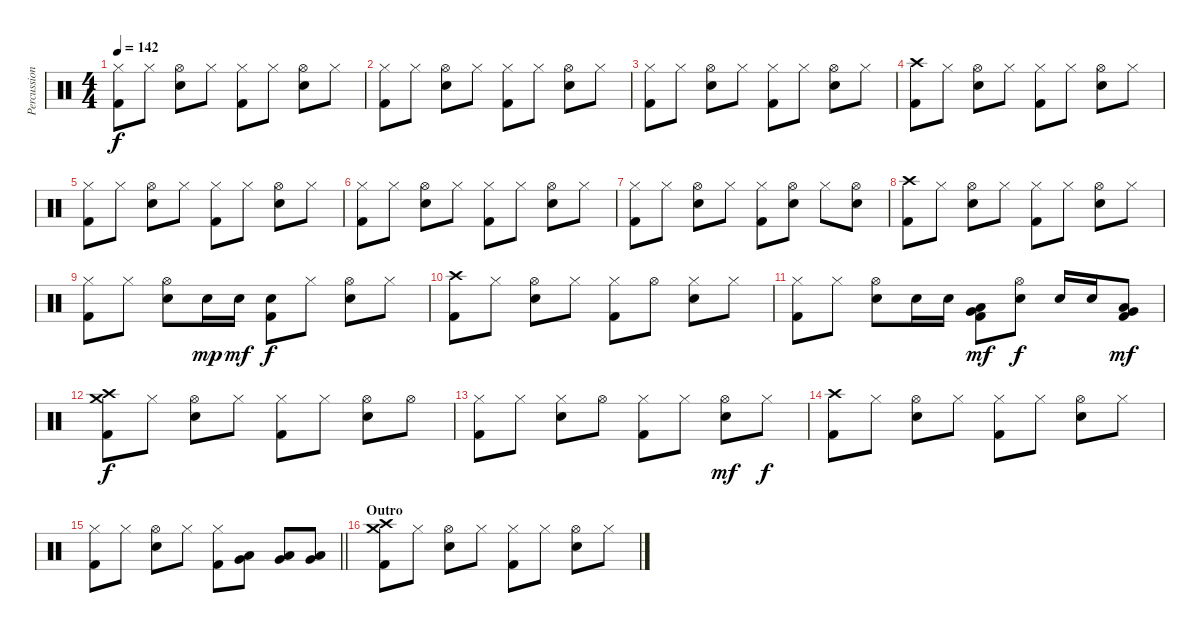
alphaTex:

\track ("Percussion" "Percussion") {instrument percussion}
\staff {score}
\articulation defaults
\ts (4 4)
\tempo 142
\clef neutral
\ks c
("Kick (hit) 2" "Hi-Hat (closed)").8{dy f} "Hi-Hat (closed)".8 ("Snare (hit) 2" "Hi-Hat (open)").8 "Hi-Hat (closed)".8 ("Kick (hit) 2" "Hi-Hat (closed)").8 "Hi-Hat (closed)".8 ("Snare (hit) 2" "Hi-Hat (open)").8 "Hi-Hat (closed)".8 |
("Kick (hit) 2" "Hi-Hat (closed)").8 "Hi-Hat (closed)".8 ("Snare (hit) 2" "Hi-Hat (open)").8 "Hi-Hat (closed)".8 ("Kick (hit) 2" "Hi-Hat (closed)").8 "Hi-Hat (closed)".8 ("Snare (hit) 2" "Hi-Hat (open)").8 "Hi-Hat (closed)".8 |
("Kick (hit) 2" "Hi-Hat (closed)").8 "Hi-Hat (closed)".8 ("Snare (hit) 2" "Hi-Hat (open)").8 "Hi-Hat (closed)".8 ("Kick (hit) 2" "Hi-Hat (closed)").8 "Hi-Hat (closed)".8 ("Snare (hit) 2" "Hi-Hat (open)").8 "Hi-Hat (closed)".8 |
("Kick (hit) 2" "Crash high (hit)").8 "Hi-Hat (closed)".8 ("Snare (hit) 2" "Hi-Hat (open)").8 "Hi-Hat (closed)".8 ("Kick (hit) 2" "Hi-Hat (closed)").8 "Hi-Hat (closed)".8 ("Snare (hit) 2" "Hi-Hat (open)").8 "Hi-Hat (closed)".8 |
("Kick (hit) 2" "Hi-Hat (closed)").8 "Hi-Hat (closed)".8 ("Snare (hit) 2" "Hi-Hat (open)").8 "Hi-Hat (closed)".8 ("Kick (hit) 2" "Hi-Hat (closed)").8 "Hi-Hat (closed)".8 ("Snare (hit) 2" "Hi-Hat (open)").8 "Hi-Hat (closed)".8 |
("Kick (hit) 2" "Hi-Hat (closed)").8 "Hi-Hat (closed)".8 ("Snare (hit) 2" "Hi-Hat (open)").8 "Hi-Hat (closed)".8 ("Kick (hit) 2" "Hi-Hat (closed)").8 "Hi-Hat (closed)".8 ("Snare (hit) 2" "Hi-Hat (open)").8 "Hi-Hat (closed)".8 |
("Kick (hit) 2" "Hi-Hat (closed)").8 "Hi-Hat (closed)".8 ("Snare (hit) 2" "Hi-Hat (open)").8 "Hi-Hat (closed)".8 ("Kick (hit) 2" "Hi-Hat (closed)").8 ("Snare (hit) 2" "Hi-Hat (open)").8 "Hi-Hat (closed)".8 ("Snare (hit) 2" "Hi-Hat (open)").8 |
("Kick (hit) 2" "Crash high (hit)").8 "Hi-Hat (closed)".8 ("Snare (hit) 2" "Hi-Hat (open)").8 "Hi-Hat (closed)".8 ("Kick (hit) 2" "Hi-Hat (closed)").8 "Hi-Hat (closed)".8 ("Snare (hit) 2" "Hi-Hat (open)").8 "Hi-Hat (closed)".8 |
("Kick (hit) 2" "Hi-Hat (closed)").8 "Hi-Hat (closed)".8 ("Snare (hit) 2" "Hi-Hat (open)").8 "Snare (hit) 2".16{dy mp} "Snare (hit) 2".16{dy mf} ("Kick (hit) 2" "Snare (hit) 2").8{dy f} "Hi-Hat (closed)".8 ("Snare (hit) 2" "Hi-Hat (open)").8 "Hi-Hat (closed)".8 |
("Kick (hit) 2" "Crash high (hit)").8 "Hi-Hat (closed)".8 ("Snare (hit) 2" "Hi-Hat (open)").8 "Hi-Hat (closed)".8 ("Kick (hit) 2" "Hi-Hat (closed)").8 "Hi-Hat (open)".8 ("Snare (hit) 2" "Hi-Hat (closed)").8 "Hi-Hat (closed)".8 |
("Kick (hit) 2" "Hi-Hat (closed)").8 "Hi-Hat (closed)".8 ("Snare (hit) 2" "Hi-Hat (open)").8 "Snare (hit) 2".16 "Snare (hit) 2".16 ("Kick (hit) 2" "Very Low Tom (hit)" "Low Floor Tom (hit)").8{dy mf} ("Snare (hit) 2" "Hi-Hat (open)").8{dy f} "Snare (hit) 2".16 "Snare (hit) 2".16 ("Kick (hit) 2" "Very Low Tom (hit)" "Low Floor Tom (hit)").8{dy mf} |
("Kick (hit) 2" "Crash high (hit)" "Crash medium (hit)").8{dy f} "Hi-Hat (closed)".8 ("Snare (hit) 2" "Hi-Hat (open)").8 "Hi-Hat (closed)".8 ("Kick (hit) 2" "Hi-Hat (closed)").8 "Hi-Hat (closed)".8 ("Snare (hit) 2" "Hi-Hat (open)").8 "Hi-Hat (open)".8 |
("Kick (hit) 2" "Hi-Hat (closed)").8 "Hi-Hat (closed)".8 ("Snare (hit) 2" "Hi-Hat (closed)").8 "Hi-Hat (open)".8 ("Kick (hit) 2" "Hi-Hat (closed)").8 "Hi-Hat (closed)".8 ("Snare (hit) 2" "Hi-Hat (open)").8{dy mf} "Hi-Hat (closed)".8{dy f} |
("Kick (hit) 2" "Crash high (hit)").8 "Hi-Hat (closed)".8 ("Snare (hit) 2" "Hi-Hat (open)").8 "Hi-Hat (closed)".8 ("Kick (hit) 2" "Hi-Hat (closed)").8 "Hi-Hat (closed)".8 ("Snare (hit) 2" "Hi-Hat (open)").8 "Hi-Hat (closed)".8 |
\barLineRight lightlight
("Kick (hit) 2" "Hi-Hat (closed)").8 "Hi-Hat (closed)".8 ("Snare (hit) 2" "Hi-Hat (open)").8 "Hi-Hat (closed)".8 ("Kick (hit) 2" "Hi-Hat (closed)").8 ("Low Floor Tom (hit)" "Very Low Tom (hit)").8 ("Low Floor Tom (hit)" "Very Low Tom (hit)").8 ("Low Floor Tom (hit)" "Very Low Tom (hit)").8 |
\section ("" "Outro")
("Kick (hit) 2" "Crash high (hit)" "Crash medium (hit)").8 "Hi-Hat (closed)".8 ("Snare (hit) 2" "Hi-Hat (open)").8 "Hi-Hat (closed)".8 ("Kick (hit) 2" "Hi-Hat (closed)").8 "Hi-Hat (closed)".8 ("Snare (hit) 2" "Hi-Hat (open)").8 "Hi-Hat (closed)".8
